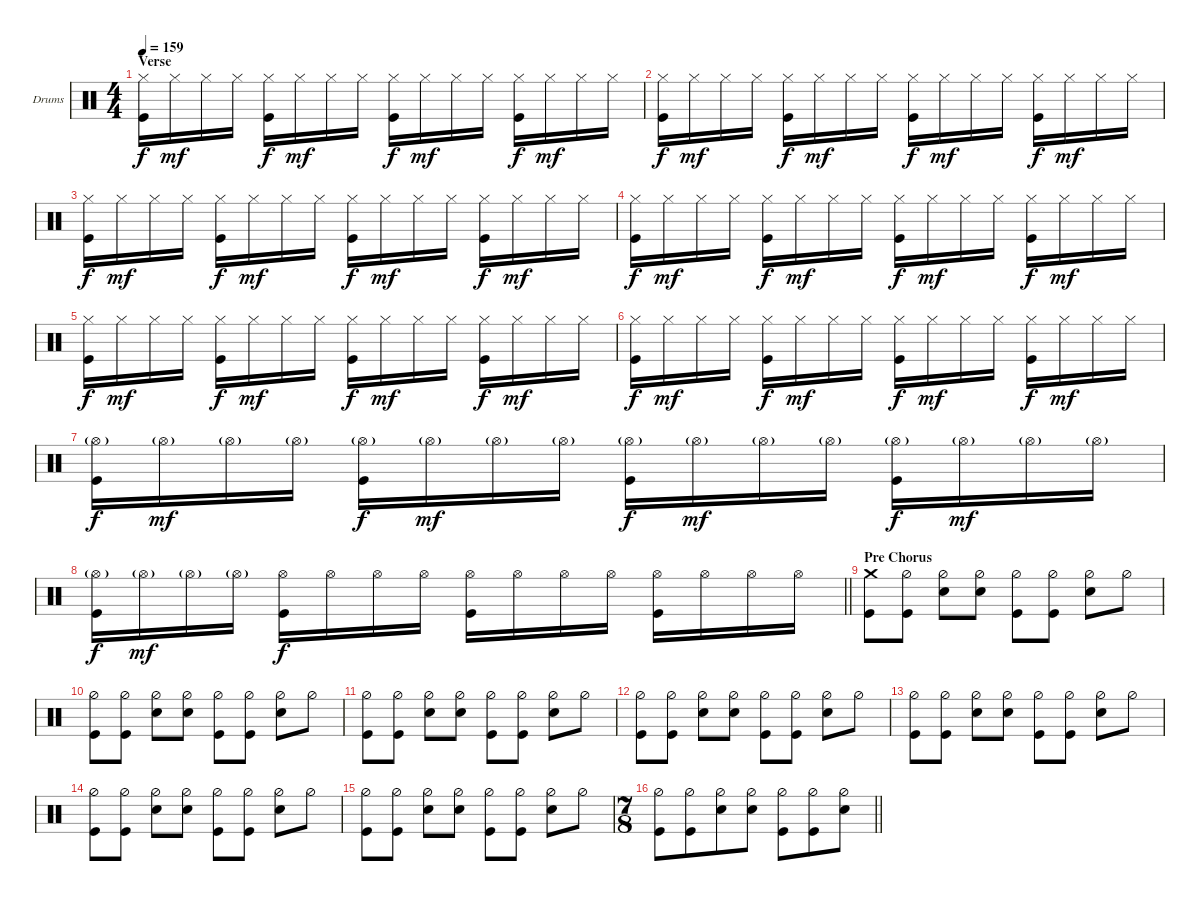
\bracketExtendMode groupsimilarinstruments
\firstSystemTrackNameOrientation horizontal
\otherSystemsTrackNameOrientation horizontal
\track ("Fabrizio" "Drums") {instrument percussion}
\staff {score}
\articulation defaults
\ts (4 4)
\section ("" "Verse")
\tempo 159
\clef neutral
\ks c
("Kick (hit)" "Hi-Hat (closed)").16{dy f} "Hi-Hat (closed)".16{dy mf} "Hi-Hat (closed)".16 "Hi-Hat (closed)".16 ("Kick (hit)" "Hi-Hat (closed)").16{dy f} "Hi-Hat (closed)".16{dy mf} "Hi-Hat (closed)".16 "Hi-Hat (closed)".16 ("Kick (hit)" "Hi-Hat (closed)").16{dy f} "Hi-Hat (closed)".16{dy mf} "Hi-Hat (closed)".16 "Hi-Hat (closed)".16 ("Kick (hit)" "Hi-Hat (closed)").16{dy f} "Hi-Hat (closed)".16{dy mf} "Hi-Hat (closed)".16 "Hi-Hat (closed)".16 |
("Kick (hit)" "Hi-Hat (closed)").16{dy f} "Hi-Hat (closed)".16{dy mf} "Hi-Hat (closed)".16 "Hi-Hat (closed)".16 ("Kick (hit)" "Hi-Hat (closed)").16{dy f} "Hi-Hat (closed)".16{dy mf} "Hi-Hat (closed)".16 "Hi-Hat (closed)".16 ("Kick (hit)" "Hi-Hat (closed)").16{dy f} "Hi-Hat (closed)".16{dy mf} "Hi-Hat (closed)".16 "Hi-Hat (closed)".16 ("Kick (hit)" "Hi-Hat (closed)").16{dy f} "Hi-Hat (closed)".16{dy mf} "Hi-Hat (closed)".16 "Hi-Hat (closed)".16 |
("Kick (hit)" "Hi-Hat (closed)").16{dy f} "Hi-Hat (closed)".16{dy mf} "Hi-Hat (closed)".16 "Hi-Hat (closed)".16 ("Kick (hit)" "Hi-Hat (closed)").16{dy f} "Hi-Hat (closed)".16{dy mf} "Hi-Hat (closed)".16 "Hi-Hat (closed)".16 ("Kick (hit)" "Hi-Hat (closed)").16{dy f} "Hi-Hat (closed)".16{dy mf} "Hi-Hat (closed)".16 "Hi-Hat (closed)".16 ("Kick (hit)" "Hi-Hat (closed)").16{dy f} "Hi-Hat (closed)".16{dy mf} "Hi-Hat (closed)".16 "Hi-Hat (closed)".16 |
("Kick (hit)" "Hi-Hat (closed)").16{dy f} "Hi-Hat (closed)".16{dy mf} "Hi-Hat (closed)".16 "Hi-Hat (closed)".16 ("Kick (hit)" "Hi-Hat (closed)").16{dy f} "Hi-Hat (closed)".16{dy mf} "Hi-Hat (closed)".16 "Hi-Hat (closed)".16 ("Kick (hit)" "Hi-Hat (closed)").16{dy f} "Hi-Hat (closed)".16{dy mf} "Hi-Hat (closed)".16 "Hi-Hat (closed)".16 ("Kick (hit)" "Hi-Hat (closed)").16{dy f} "Hi-Hat (closed)".16{dy mf} "Hi-Hat (closed)".16 "Hi-Hat (closed)".16 |
("Kick (hit)" "Hi-Hat (closed)").16{dy f} "Hi-Hat (closed)".16{dy mf} "Hi-Hat (closed)".16 "Hi-Hat (closed)".16 ("Kick (hit)" "Hi-Hat (closed)").16{dy f} "Hi-Hat (closed)".16{dy mf} "Hi-Hat (closed)".16 "Hi-Hat (closed)".16 ("Kick (hit)" "Hi-Hat (closed)").16{dy f} "Hi-Hat (closed)".16{dy mf} "Hi-Hat (closed)".16 "Hi-Hat (closed)".16 ("Kick (hit)" "Hi-Hat (closed)").16{dy f} "Hi-Hat (closed)".16{dy mf} "Hi-Hat (closed)".16 "Hi-Hat (closed)".16 |
("Kick (hit)" "Hi-Hat (closed)").16{dy f} "Hi-Hat (closed)".16{dy mf} "Hi-Hat (closed)".16 "Hi-Hat (closed)".16 ("Kick (hit)" "Hi-Hat (closed)").16{dy f} "Hi-Hat (closed)".16{dy mf} "Hi-Hat (closed)".16 "Hi-Hat (closed)".16 ("Kick (hit)" "Hi-Hat (closed)").16{dy f} "Hi-Hat (closed)".16{dy mf} "Hi-Hat (closed)".16 "Hi-Hat (closed)".16 ("Kick (hit)" "Hi-Hat (closed)").16{dy f} "Hi-Hat (closed)".16{dy mf} "Hi-Hat (closed)".16 "Hi-Hat (closed)".16 |
("Hi-Hat (open)"{g} "Kick (hit)").16{dy f} "Hi-Hat (open)"{g}.16{dy mf} "Hi-Hat (open)"{g}.16 "Hi-Hat (open)"{g}.16 ("Hi-Hat (open)"{g} "Kick (hit)").16{dy f} "Hi-Hat (open)"{g}.16{dy mf} "Hi-Hat (open)"{g}.16 "Hi-Hat (open)"{g}.16 ("Hi-Hat (open)"{g} "Kick (hit)").16{dy f} "Hi-Hat (open)"{g}.16{dy mf} "Hi-Hat (open)"{g}.16 "Hi-Hat (open)"{g}.16 ("Hi-Hat (open)"{g} "Kick (hit)").16{dy f} "Hi-Hat (open)"{g}.16{dy mf} "Hi-Hat (open)"{g}.16 "Hi-Hat (open)"{g}.16 |
\barLineRight lightlight
("Hi-Hat (open)"{g} "Kick (hit)").16{dy f} "Hi-Hat (open)"{g}.16{dy mf} "Hi-Hat (open)"{g}.16 "Hi-Hat (open)"{g}.16 ("Hi-Hat (open)" "Kick (hit)").16{dy f} "Hi-Hat (open)".16 "Hi-Hat (open)".16 "Hi-Hat (open)".16 ("Hi-Hat (open)" "Kick (hit)").16 "Hi-Hat (open)".16 "Hi-Hat (open)".16 "Hi-Hat (open)".16 ("Hi-Hat (open)" "Kick (hit)").16 "Hi-Hat (open)".16 "Hi-Hat (open)".16 "Hi-Hat (open)".16 |
\section ("" "Pre Chorus")
("Crash medium (hit)" "Kick (hit)").8 ("Kick (hit)" "Hi-Hat (half)").8 ("Snare (hit) 2" "Hi-Hat (half)").8 ("Snare (hit) 2" "Hi-Hat (half)").8 ("Hi-Hat (half)" "Kick (hit)").8 ("Kick (hit)" "Hi-Hat (half)").8 ("Snare (hit) 2" "Hi-Hat (half)").8 "Hi-Hat (half)".8 |
("Kick (hit)" "Hi-Hat (half)").8 ("Kick (hit)" "Hi-Hat (half)").8 ("Snare (hit) 2" "Hi-Hat (half)").8 ("Snare (hit) 2" "Hi-Hat (half)").8 ("Hi-Hat (half)" "Kick (hit)").8 ("Kick (hit)" "Hi-Hat (half)").8 ("Snare (hit) 2" "Hi-Hat (half)").8 "Hi-Hat (half)".8 |
("Kick (hit)" "Hi-Hat (half)").8 ("Kick (hit)" "Hi-Hat (half)").8 ("Snare (hit) 2" "Hi-Hat (half)").8 ("Snare (hit) 2" "Hi-Hat (half)").8 ("Hi-Hat (half)" "Kick (hit)").8 ("Kick (hit)" "Hi-Hat (half)").8 ("Snare (hit) 2" "Hi-Hat (half)").8 "Hi-Hat (half)".8 |
("Kick (hit)" "Hi-Hat (half)").8 ("Kick (hit)" "Hi-Hat (half)").8 ("Snare (hit) 2" "Hi-Hat (half)").8 ("Snare (hit) 2" "Hi-Hat (half)").8 ("Hi-Hat (half)" "Kick (hit)").8 ("Kick (hit)" "Hi-Hat (half)").8 ("Snare (hit) 2" "Hi-Hat (half)").8 "Hi-Hat (half)".8 |
("Kick (hit)" "Hi-Hat (half)").8 ("Kick (hit)" "Hi-Hat (half)").8 ("Snare (hit) 2" "Hi-Hat (half)").8 ("Snare (hit) 2" "Hi-Hat (half)").8 ("Hi-Hat (half)" "Kick (hit)").8 ("Kick (hit)" "Hi-Hat (half)").8 ("Snare (hit) 2" "Hi-Hat (half)").8 "Hi-Hat (half)".8 |
("Kick (hit)" "Hi-Hat (half)").8 ("Kick (hit)" "Hi-Hat (half)").8 ("Snare (hit) 2" "Hi-Hat (half)").8 ("Snare (hit) 2" "Hi-Hat (half)").8 ("Hi-Hat (half)" "Kick (hit)").8 ("Kick (hit)" "Hi-Hat (half)").8 ("Snare (hit) 2" "Hi-Hat (half)").8 "Hi-Hat (half)".8 |
("Kick (hit)" "Hi-Hat (half)").8 ("Kick (hit)" "Hi-Hat (half)").8 ("Snare (hit) 2" "Hi-Hat (half)").8 ("Snare (hit) 2" "Hi-Hat (half)").8 ("Hi-Hat (half)" "Kick (hit)").8 ("Kick (hit)" "Hi-Hat (half)").8 ("Snare (hit) 2" "Hi-Hat (half)").8 "Hi-Hat (half)".8 |
\ts (7 8)
\barLineRight lightlight
("Kick (hit)" "Hi-Hat (half)").8 ("Kick (hit)" "Hi-Hat (half)").8 ("Snare (hit) 2" "Hi-Hat (half)").8 ("Snare (hit) 2" "Hi-Hat (half)").8 ("Hi-Hat (half)" "Kick (hit)").8 ("Kick (hit)" "Hi-Hat (half)").8 ("Snare (hit) 2" "Hi-Hat (half)").8
